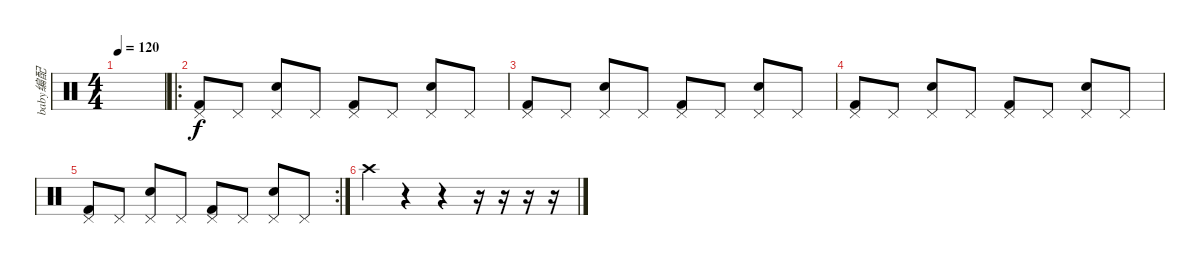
\track ("baby编配" "baby编配") {instrument percussion}
\staff {score}
\articulation defaults
\ts (4 4)
\tempo 120
\clef neutral
\ks c
|
\ro
("Kick (hit) 2" "Pedal Hi-Hat (hit)").8 "Pedal Hi-Hat (hit)".8 ("Snare (hit) 2" "Pedal Hi-Hat (hit)").8 "Pedal Hi-Hat (hit)".8 ("Kick (hit) 2" "Pedal Hi-Hat (hit)").8 "Pedal Hi-Hat (hit)".8 ("Snare (hit) 2" "Pedal Hi-Hat (hit)").8 "Pedal Hi-Hat (hit)".8 |
("Kick (hit) 2" "Pedal Hi-Hat (hit)").8 "Pedal Hi-Hat (hit)".8 ("Snare (hit) 2" "Pedal Hi-Hat (hit)").8 "Pedal Hi-Hat (hit)".8 ("Kick (hit) 2" "Pedal Hi-Hat (hit)").8 "Pedal Hi-Hat (hit)".8 ("Snare (hit) 2" "Pedal Hi-Hat (hit)").8 "Pedal Hi-Hat (hit)".8 |
("Kick (hit) 2" "Pedal Hi-Hat (hit)").8 "Pedal Hi-Hat (hit)".8 ("Snare (hit) 2" "Pedal Hi-Hat (hit)").8 "Pedal Hi-Hat (hit)".8 ("Kick (hit) 2" "Pedal Hi-Hat (hit)").8 "Pedal Hi-Hat (hit)".8 ("Snare (hit) 2" "Pedal Hi-Hat (hit)").8 "Pedal Hi-Hat (hit)".8 |
\rc 2
("Kick (hit) 2" "Pedal Hi-Hat (hit)").8 "Pedal Hi-Hat (hit)".8 ("Snare (hit) 2" "Pedal Hi-Hat (hit)").8 "Pedal Hi-Hat (hit)".8 ("Kick (hit) 2" "Pedal Hi-Hat (hit)").8 "Pedal Hi-Hat (hit)".8 ("Snare (hit) 2" "Pedal Hi-Hat (hit)").8 "Pedal Hi-Hat (hit)".8 |
"Crash high (hit)".4 r.4 r.4 r.16 r.16 r.16 r.16
